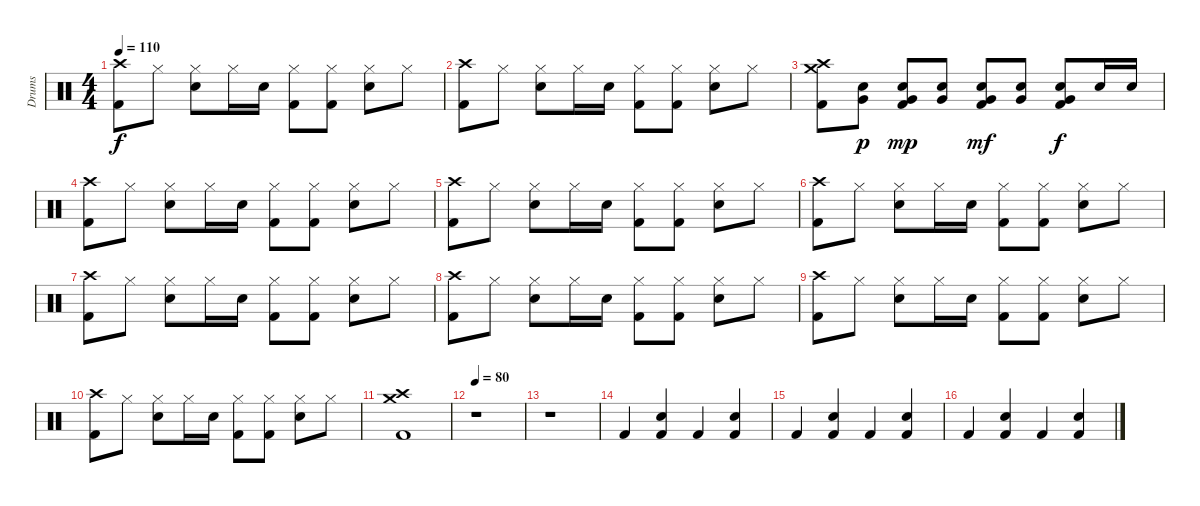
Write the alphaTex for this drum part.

\track ("Drums" "Drums") {instrument percussion}
\staff {score}
\articulation defaults
\ts (4 4)
\tempo 110
\clef neutral
\ks c
("Crash high (hit)" "Kick (hit) 2").8{dy f} "Hi-Hat (closed)".8 ("Hi-Hat (closed)" "Snare (hit) 2").8 "Hi-Hat (closed)".16 "Snare (hit) 2".16 ("Hi-Hat (closed)" "Kick (hit) 2").8 ("Hi-Hat (closed)" "Kick (hit) 2").8 ("Hi-Hat (closed)" "Snare (hit) 2").8 "Hi-Hat (closed)".8 |
("Crash high (hit)" "Kick (hit) 2").8 "Hi-Hat (closed)".8 ("Hi-Hat (closed)" "Snare (hit) 2").8 "Hi-Hat (closed)".16 "Snare (hit) 2".16 ("Hi-Hat (closed)" "Kick (hit) 2").8 ("Hi-Hat (closed)" "Kick (hit) 2").8 ("Hi-Hat (closed)" "Snare (hit) 2").8 "Hi-Hat (closed)".8 |
("Crash high (hit)" "Crash medium (hit)" "Kick (hit) 2").8 ("Very Low Tom (hit)" "Snare (hit) 2").8{dy p} ("Very Low Tom (hit)" "Snare (hit) 2" "Kick (hit) 2").8{dy mp} ("Very Low Tom (hit)" "Snare (hit) 2").8 ("Very Low Tom (hit)" "Snare (hit) 2" "Kick (hit) 2").8{dy mf} ("Very Low Tom (hit)" "Snare (hit) 2").8 ("Very Low Tom (hit)" "Snare (hit) 2" "Kick (hit) 2").8{dy f} "Snare (hit) 2".16 "Snare (hit) 2".16 |
("Crash high (hit)" "Kick (hit) 2").8 "Hi-Hat (closed)".8 ("Hi-Hat (closed)" "Snare (hit) 2").8 "Hi-Hat (closed)".16 "Snare (hit) 2".16 ("Hi-Hat (closed)" "Kick (hit) 2").8 ("Hi-Hat (closed)" "Kick (hit) 2").8 ("Hi-Hat (closed)" "Snare (hit) 2").8 "Hi-Hat (closed)".8 |
("Crash high (hit)" "Kick (hit) 2").8 "Hi-Hat (closed)".8 ("Hi-Hat (closed)" "Snare (hit) 2").8 "Hi-Hat (closed)".16 "Snare (hit) 2".16 ("Hi-Hat (closed)" "Kick (hit) 2").8 ("Hi-Hat (closed)" "Kick (hit) 2").8 ("Hi-Hat (closed)" "Snare (hit) 2").8 "Hi-Hat (closed)".8 |
("Crash high (hit)" "Kick (hit) 2").8 "Hi-Hat (closed)".8 ("Hi-Hat (closed)" "Snare (hit) 2").8 "Hi-Hat (closed)".16 "Snare (hit) 2".16 ("Hi-Hat (closed)" "Kick (hit) 2").8 ("Hi-Hat (closed)" "Kick (hit) 2").8 ("Hi-Hat (closed)" "Snare (hit) 2").8 "Hi-Hat (closed)".8 |
("Crash high (hit)" "Kick (hit) 2").8 "Hi-Hat (closed)".8 ("Hi-Hat (closed)" "Snare (hit) 2").8 "Hi-Hat (closed)".16 "Snare (hit) 2".16 ("Hi-Hat (closed)" "Kick (hit) 2").8 ("Hi-Hat (closed)" "Kick (hit) 2").8 ("Hi-Hat (closed)" "Snare (hit) 2").8 "Hi-Hat (closed)".8 |
("Crash high (hit)" "Kick (hit) 2").8 "Hi-Hat (closed)".8 ("Hi-Hat (closed)" "Snare (hit) 2").8 "Hi-Hat (closed)".16 "Snare (hit) 2".16 ("Hi-Hat (closed)" "Kick (hit) 2").8 ("Hi-Hat (closed)" "Kick (hit) 2").8 ("Hi-Hat (closed)" "Snare (hit) 2").8 "Hi-Hat (closed)".8 |
("Crash high (hit)" "Kick (hit) 2").8 "Hi-Hat (closed)".8 ("Hi-Hat (closed)" "Snare (hit) 2").8 "Hi-Hat (closed)".16 "Snare (hit) 2".16 ("Hi-Hat (closed)" "Kick (hit) 2").8 ("Hi-Hat (closed)" "Kick (hit) 2").8 ("Hi-Hat (closed)" "Snare (hit) 2").8 "Hi-Hat (closed)".8 |
("Crash high (hit)" "Kick (hit) 2").8 "Hi-Hat (closed)".8 ("Hi-Hat (closed)" "Snare (hit) 2").8 "Hi-Hat (closed)".16 "Snare (hit) 2".16 ("Hi-Hat (closed)" "Kick (hit) 2").8 ("Hi-Hat (closed)" "Kick (hit) 2").8 ("Hi-Hat (closed)" "Snare (hit) 2").8 "Hi-Hat (closed)".8 |
("Crash high (hit)" "Crash medium (hit)" "Kick (hit) 2").1 |
\tempo 80
r.1 |
r.1 |
"Kick (hit) 2".4 ("Snare (hit) 2" "Kick (hit) 2").4 "Kick (hit) 2".4 ("Snare (hit) 2" "Kick (hit) 2").4 |
"Kick (hit) 2".4 ("Snare (hit) 2" "Kick (hit) 2").4 "Kick (hit) 2".4 ("Snare (hit) 2" "Kick (hit) 2").4 |
"Kick (hit) 2".4 ("Snare (hit) 2" "Kick (hit) 2").4 "Kick (hit) 2".4 ("Snare (hit) 2" "Kick (hit) 2").4
